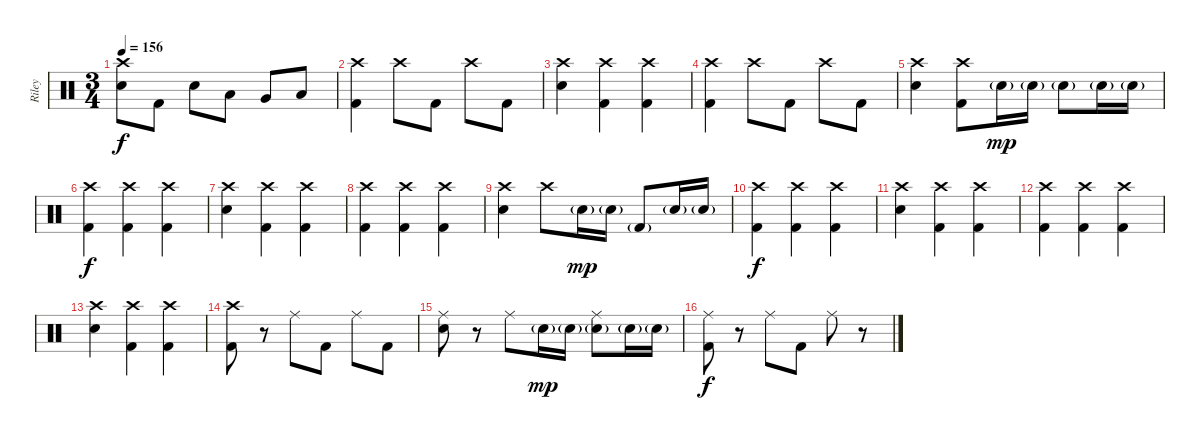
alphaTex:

\track ("Riley" "Riley") {instrument percussion}
\staff {score}
\articulation defaults
\ts (3 4)
\tempo 156
\clef neutral
\ks c
("Crash high (hit)" "Electric Snare (hit)").8{dy f} "Kick (hit) 2".8 "Electric Snare (hit)".8 "Low Tom (hit)".8 "Very Low Tom (hit)".8 "Low Floor Tom (hit)".8 |
("Crash high (hit)" "Kick (hit) 2").4 "Crash high (hit)".8 "Kick (hit) 2".8 "Crash high (hit)".8 "Kick (hit) 2".8 |
("Crash high (hit)" "Electric Snare (hit)").4 ("Crash high (hit)" "Kick (hit) 2").4 ("Crash high (hit)" "Kick (hit) 2").4 |
("Crash high (hit)" "Kick (hit) 2").4 "Crash high (hit)".8 "Kick (hit) 2".8 "Crash high (hit)".8 "Kick (hit) 2".8 |
("Crash high (hit)" "Electric Snare (hit)").4 ("Crash high (hit)" "Kick (hit) 2").8 "Electric Snare (hit)"{g}.16{dy mp} "Electric Snare (hit)"{g}.16 "Electric Snare (hit)"{g}.8 "Electric Snare (hit)"{g}.16 "Electric Snare (hit)"{g}.16 |
("Crash high (hit)" "Kick (hit) 2").4{dy f} ("Crash high (hit)" "Kick (hit) 2").4 ("Crash high (hit)" "Kick (hit) 2").4 |
("Crash high (hit)" "Electric Snare (hit)").4 ("Crash high (hit)" "Kick (hit) 2").4 ("Crash high (hit)" "Kick (hit) 2").4 |
("Crash high (hit)" "Kick (hit) 2").4 ("Crash high (hit)" "Kick (hit) 2").4 ("Crash high (hit)" "Kick (hit) 2").4 |
("Crash high (hit)" "Electric Snare (hit)").4 "Crash high (hit)".8 "Electric Snare (hit)"{g}.16{dy mp} "Electric Snare (hit)"{g}.16 "Kick (hit) 2"{g}.8 "Electric Snare (hit)"{g}.16 "Electric Snare (hit)"{g}.16 |
("Crash high (hit)" "Kick (hit) 2").4{dy f} ("Crash high (hit)" "Kick (hit) 2").4 ("Crash high (hit)" "Kick (hit) 2").4 |
("Crash high (hit)" "Electric Snare (hit)").4 ("Crash high (hit)" "Kick (hit) 2").4 ("Crash high (hit)" "Kick (hit) 2").4 |
("Crash high (hit)" "Kick (hit) 2").4 ("Crash high (hit)" "Kick (hit) 2").4 ("Crash high (hit)" "Kick (hit) 2").4 |
("Crash high (hit)" "Electric Snare (hit)").4 ("Crash high (hit)" "Kick (hit) 2").4 ("Crash high (hit)" "Kick (hit) 2").4 |
("Crash high (hit)" "Kick (hit) 2").8 r.8 "Ride (middle)".8 "Kick (hit) 2".8 "Ride (middle)".8 "Kick (hit) 2".8 |
("Ride (middle)" "Electric Snare (hit)").8 r.8 "Ride (middle)".8 "Electric Snare (hit)"{g}.16{dy mp} "Electric Snare (hit)"{g}.16 ("Ride (middle)" "Electric Snare (hit)"{g}).8 "Electric Snare (hit)"{g}.16 "Electric Snare (hit)"{g}.16 |
("Ride (middle)" "Kick (hit) 2").8{dy f} r.8 "Ride (middle)".8 "Kick (hit) 2".8 "Ride (middle)".8 r.8
